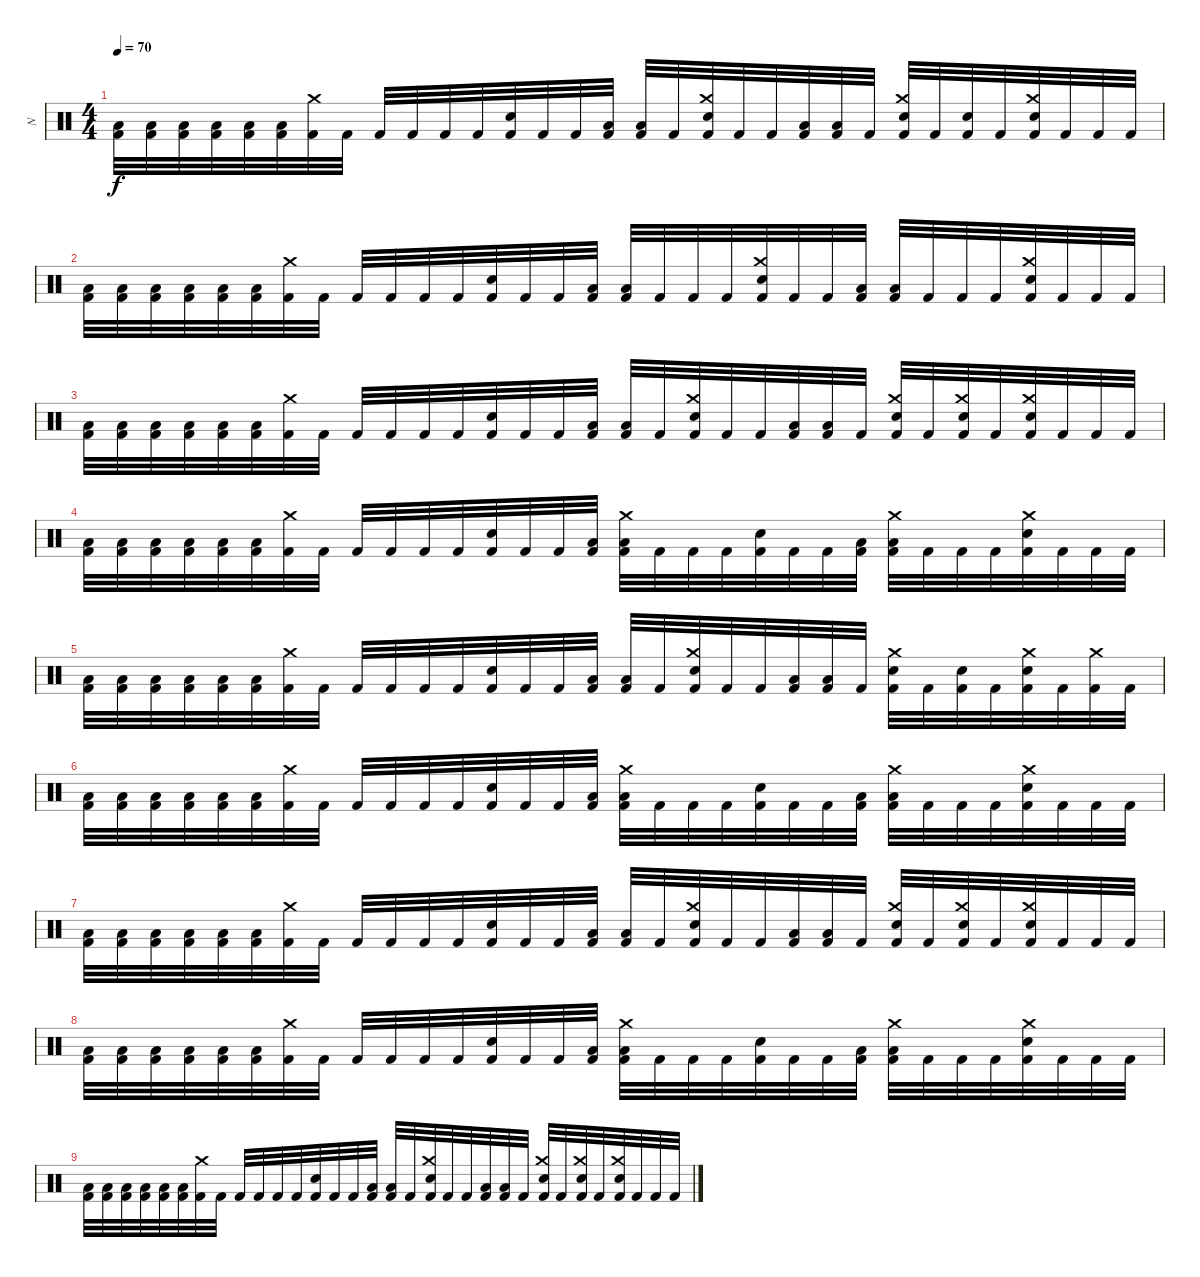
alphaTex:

\track ("N" "N") {instrument percussion}
\staff {score}
\articulation defaults
\ts (4 4)
\tempo 70
\clef neutral
\ks c
("Low Tom (hit)" "Kick (hit) 2").32{dy f} ("Low Tom (hit)" "Kick (hit) 2").32 ("Low Tom (hit)" "Kick (hit) 2").32 ("Low Tom (hit)" "Kick (hit) 2").32 ("Low Tom (hit)" "Kick (hit) 2").32 ("Low Tom (hit)" "Kick (hit) 2").32 ("Crash medium (hit)" "Kick (hit) 2").32 "Kick (hit) 2".32 "Kick (hit) 2".32 "Kick (hit) 2".32 "Kick (hit) 2".32 "Kick (hit) 2".32 ("Electric Snare (hit)" "Kick (hit) 2").32 "Kick (hit) 2".32 "Kick (hit) 2".32 ("Low Tom (hit)" "Kick (hit) 2").32 ("Low Tom (hit)" "Kick (hit) 2").32 "Kick (hit) 2".32 ("Crash medium (hit)" "Electric Snare (hit)" "Kick (hit) 2").32 "Kick (hit) 2".32 "Kick (hit) 2".32 ("Low Tom (hit)" "Kick (hit) 2").32 ("Low Tom (hit)" "Kick (hit) 2").32 "Kick (hit) 2".32 ("Crash medium (hit)" "Electric Snare (hit)" "Kick (hit) 2").32 "Kick (hit) 2".32 ("Electric Snare (hit)" "Kick (hit) 2").32 "Kick (hit) 2".32 ("Crash medium (hit)" "Electric Snare (hit)" "Kick (hit) 2").32 "Kick (hit) 2".32 "Kick (hit) 2".32 "Kick (hit) 2".32 |
("Low Tom (hit)" "Kick (hit) 2").32 ("Low Tom (hit)" "Kick (hit) 2").32 ("Low Tom (hit)" "Kick (hit) 2").32 ("Low Tom (hit)" "Kick (hit) 2").32 ("Low Tom (hit)" "Kick (hit) 2").32 ("Low Tom (hit)" "Kick (hit) 2").32 ("Crash medium (hit)" "Kick (hit) 2").32 "Kick (hit) 2".32 "Kick (hit) 2".32 "Kick (hit) 2".32 "Kick (hit) 2".32 "Kick (hit) 2".32 ("Electric Snare (hit)" "Kick (hit) 2").32 "Kick (hit) 2".32 "Kick (hit) 2".32 ("Low Tom (hit)" "Kick (hit) 2").32 ("Low Tom (hit)" "Kick (hit) 2").32 "Kick (hit) 2".32 "Kick (hit) 2".32 "Kick (hit) 2".32 ("Crash medium (hit)" "Electric Snare (hit)" "Kick (hit) 2").32 "Kick (hit) 2".32 "Kick (hit) 2".32 ("Low Tom (hit)" "Kick (hit) 2").32 ("Low Tom (hit)" "Kick (hit) 2").32 "Kick (hit) 2".32 "Kick (hit) 2".32 "Kick (hit) 2".32 ("Crash medium (hit)" "Electric Snare (hit)" "Kick (hit) 2").32 "Kick (hit) 2".32 "Kick (hit) 2".32 "Kick (hit) 2".32 |
("Low Tom (hit)" "Kick (hit) 2").32 ("Low Tom (hit)" "Kick (hit) 2").32 ("Low Tom (hit)" "Kick (hit) 2").32 ("Low Tom (hit)" "Kick (hit) 2").32 ("Low Tom (hit)" "Kick (hit) 2").32 ("Low Tom (hit)" "Kick (hit) 2").32 ("Crash medium (hit)" "Kick (hit) 2").32 "Kick (hit) 2".32 "Kick (hit) 2".32 "Kick (hit) 2".32 "Kick (hit) 2".32 "Kick (hit) 2".32 ("Electric Snare (hit)" "Kick (hit) 2").32 "Kick (hit) 2".32 "Kick (hit) 2".32 ("Low Tom (hit)" "Kick (hit) 2").32 ("Low Tom (hit)" "Kick (hit) 2").32 "Kick (hit) 2".32 ("Crash medium (hit)" "Electric Snare (hit)" "Kick (hit) 2").32 "Kick (hit) 2".32 "Kick (hit) 2".32 ("Low Tom (hit)" "Kick (hit) 2").32 ("Low Tom (hit)" "Kick (hit) 2").32 "Kick (hit) 2".32 ("Crash medium (hit)" "Electric Snare (hit)" "Kick (hit) 2").32 "Kick (hit) 2".32 ("Crash medium (hit)" "Electric Snare (hit)" "Kick (hit) 2").32 "Kick (hit) 2".32 ("Crash medium (hit)" "Electric Snare (hit)" "Kick (hit) 2").32 "Kick (hit) 2".32 "Kick (hit) 2".32 "Kick (hit) 2".32 |
("Low Tom (hit)" "Kick (hit) 2").32 ("Low Tom (hit)" "Kick (hit) 2").32 ("Low Tom (hit)" "Kick (hit) 2").32 ("Low Tom (hit)" "Kick (hit) 2").32 ("Low Tom (hit)" "Kick (hit) 2").32 ("Low Tom (hit)" "Kick (hit) 2").32 ("Crash medium (hit)" "Kick (hit) 2").32 "Kick (hit) 2".32 "Kick (hit) 2".32 "Kick (hit) 2".32 "Kick (hit) 2".32 "Kick (hit) 2".32 ("Electric Snare (hit)" "Kick (hit) 2").32 "Kick (hit) 2".32 "Kick (hit) 2".32 ("Low Tom (hit)" "Kick (hit) 2").32 ("Crash medium (hit)" "Low Tom (hit)" "Kick (hit) 2").32 "Kick (hit) 2".32 "Kick (hit) 2".32 "Kick (hit) 2".32 ("Electric Snare (hit)" "Kick (hit) 2").32 "Kick (hit) 2".32 "Kick (hit) 2".32 ("Low Tom (hit)" "Kick (hit) 2").32 ("Crash medium (hit)" "Low Tom (hit)" "Kick (hit) 2").32 "Kick (hit) 2".32 "Kick (hit) 2".32 "Kick (hit) 2".32 ("Crash medium (hit)" "Electric Snare (hit)" "Kick (hit) 2").32 "Kick (hit) 2".32 "Kick (hit) 2".32 "Kick (hit) 2".32 |
("Low Tom (hit)" "Kick (hit) 2").32 ("Low Tom (hit)" "Kick (hit) 2").32 ("Low Tom (hit)" "Kick (hit) 2").32 ("Low Tom (hit)" "Kick (hit) 2").32 ("Low Tom (hit)" "Kick (hit) 2").32 ("Low Tom (hit)" "Kick (hit) 2").32 ("Crash medium (hit)" "Kick (hit) 2").32 "Kick (hit) 2".32 "Kick (hit) 2".32 "Kick (hit) 2".32 "Kick (hit) 2".32 "Kick (hit) 2".32 ("Electric Snare (hit)" "Kick (hit) 2").32 "Kick (hit) 2".32 "Kick (hit) 2".32 ("Low Tom (hit)" "Kick (hit) 2").32 ("Low Tom (hit)" "Kick (hit) 2").32 "Kick (hit) 2".32 ("Crash medium (hit)" "Electric Snare (hit)" "Kick (hit) 2").32 "Kick (hit) 2".32 "Kick (hit) 2".32 ("Low Tom (hit)" "Kick (hit) 2").32 ("Low Tom (hit)" "Kick (hit) 2").32 "Kick (hit) 2".32 ("Crash medium (hit)" "Electric Snare (hit)" "Kick (hit) 2").32 "Kick (hit) 2".32 ("Electric Snare (hit)" "Kick (hit) 2").32 "Kick (hit) 2".32 ("Crash medium (hit)" "Electric Snare (hit)" "Kick (hit) 2").32 "Kick (hit) 2".32 ("Crash medium (hit)" "Kick (hit) 2").32 "Kick (hit) 2".32 |
("Low Tom (hit)" "Kick (hit) 2").32 ("Low Tom (hit)" "Kick (hit) 2").32 ("Low Tom (hit)" "Kick (hit) 2").32 ("Low Tom (hit)" "Kick (hit) 2").32 ("Low Tom (hit)" "Kick (hit) 2").32 ("Low Tom (hit)" "Kick (hit) 2").32 ("Crash medium (hit)" "Kick (hit) 2").32 "Kick (hit) 2".32 "Kick (hit) 2".32 "Kick (hit) 2".32 "Kick (hit) 2".32 "Kick (hit) 2".32 ("Electric Snare (hit)" "Kick (hit) 2").32 "Kick (hit) 2".32 "Kick (hit) 2".32 ("Low Tom (hit)" "Kick (hit) 2").32 ("Crash medium (hit)" "Low Tom (hit)" "Kick (hit) 2").32 "Kick (hit) 2".32 "Kick (hit) 2".32 "Kick (hit) 2".32 ("Electric Snare (hit)" "Kick (hit) 2").32 "Kick (hit) 2".32 "Kick (hit) 2".32 ("Low Tom (hit)" "Kick (hit) 2").32 ("Crash medium (hit)" "Low Tom (hit)" "Kick (hit) 2").32 "Kick (hit) 2".32 "Kick (hit) 2".32 "Kick (hit) 2".32 ("Crash medium (hit)" "Electric Snare (hit)" "Kick (hit) 2").32 "Kick (hit) 2".32 "Kick (hit) 2".32 "Kick (hit) 2".32 |
("Low Tom (hit)" "Kick (hit) 2").32 ("Low Tom (hit)" "Kick (hit) 2").32 ("Low Tom (hit)" "Kick (hit) 2").32 ("Low Tom (hit)" "Kick (hit) 2").32 ("Low Tom (hit)" "Kick (hit) 2").32 ("Low Tom (hit)" "Kick (hit) 2").32 ("Crash medium (hit)" "Kick (hit) 2").32 "Kick (hit) 2".32 "Kick (hit) 2".32 "Kick (hit) 2".32 "Kick (hit) 2".32 "Kick (hit) 2".32 ("Electric Snare (hit)" "Kick (hit) 2").32 "Kick (hit) 2".32 "Kick (hit) 2".32 ("Low Tom (hit)" "Kick (hit) 2").32 ("Low Tom (hit)" "Kick (hit) 2").32 "Kick (hit) 2".32 ("Crash medium (hit)" "Electric Snare (hit)" "Kick (hit) 2").32 "Kick (hit) 2".32 "Kick (hit) 2".32 ("Low Tom (hit)" "Kick (hit) 2").32 ("Low Tom (hit)" "Kick (hit) 2").32 "Kick (hit) 2".32 ("Crash medium (hit)" "Electric Snare (hit)" "Kick (hit) 2").32 "Kick (hit) 2".32 ("Crash medium (hit)" "Electric Snare (hit)" "Kick (hit) 2").32 "Kick (hit) 2".32 ("Crash medium (hit)" "Electric Snare (hit)" "Kick (hit) 2").32 "Kick (hit) 2".32 "Kick (hit) 2".32 "Kick (hit) 2".32 |
("Low Tom (hit)" "Kick (hit) 2").32 ("Low Tom (hit)" "Kick (hit) 2").32 ("Low Tom (hit)" "Kick (hit) 2").32 ("Low Tom (hit)" "Kick (hit) 2").32 ("Low Tom (hit)" "Kick (hit) 2").32 ("Low Tom (hit)" "Kick (hit) 2").32 ("Crash medium (hit)" "Kick (hit) 2").32 "Kick (hit) 2".32 "Kick (hit) 2".32 "Kick (hit) 2".32 "Kick (hit) 2".32 "Kick (hit) 2".32 ("Electric Snare (hit)" "Kick (hit) 2").32 "Kick (hit) 2".32 "Kick (hit) 2".32 ("Low Tom (hit)" "Kick (hit) 2").32 ("Crash medium (hit)" "Low Tom (hit)" "Kick (hit) 2").32 "Kick (hit) 2".32 "Kick (hit) 2".32 "Kick (hit) 2".32 ("Electric Snare (hit)" "Kick (hit) 2").32 "Kick (hit) 2".32 "Kick (hit) 2".32 ("Low Tom (hit)" "Kick (hit) 2").32 ("Crash medium (hit)" "Low Tom (hit)" "Kick (hit) 2").32 "Kick (hit) 2".32 "Kick (hit) 2".32 "Kick (hit) 2".32 ("Crash medium (hit)" "Electric Snare (hit)" "Kick (hit) 2").32 "Kick (hit) 2".32 "Kick (hit) 2".32 "Kick (hit) 2".32 |
("Low Tom (hit)" "Kick (hit) 2").32 ("Low Tom (hit)" "Kick (hit) 2").32 ("Low Tom (hit)" "Kick (hit) 2").32 ("Low Tom (hit)" "Kick (hit) 2").32 ("Low Tom (hit)" "Kick (hit) 2").32 ("Low Tom (hit)" "Kick (hit) 2").32 ("Crash medium (hit)" "Kick (hit) 2").32 "Kick (hit) 2".32 "Kick (hit) 2".32 "Kick (hit) 2".32 "Kick (hit) 2".32 "Kick (hit) 2".32 ("Electric Snare (hit)" "Kick (hit) 2").32 "Kick (hit) 2".32 "Kick (hit) 2".32 ("Low Tom (hit)" "Kick (hit) 2").32 ("Low Tom (hit)" "Kick (hit) 2").32 "Kick (hit) 2".32 ("Crash medium (hit)" "Electric Snare (hit)" "Kick (hit) 2").32 "Kick (hit) 2".32 "Kick (hit) 2".32 ("Low Tom (hit)" "Kick (hit) 2").32 ("Low Tom (hit)" "Kick (hit) 2").32 "Kick (hit) 2".32 ("Crash medium (hit)" "Electric Snare (hit)" "Kick (hit) 2").32 "Kick (hit) 2".32 ("Crash medium (hit)" "Electric Snare (hit)" "Kick (hit) 2").32 "Kick (hit) 2".32 ("Crash medium (hit)" "Electric Snare (hit)" "Kick (hit) 2").32 "Kick (hit) 2".32 "Kick (hit) 2".32 "Kick (hit) 2".32
